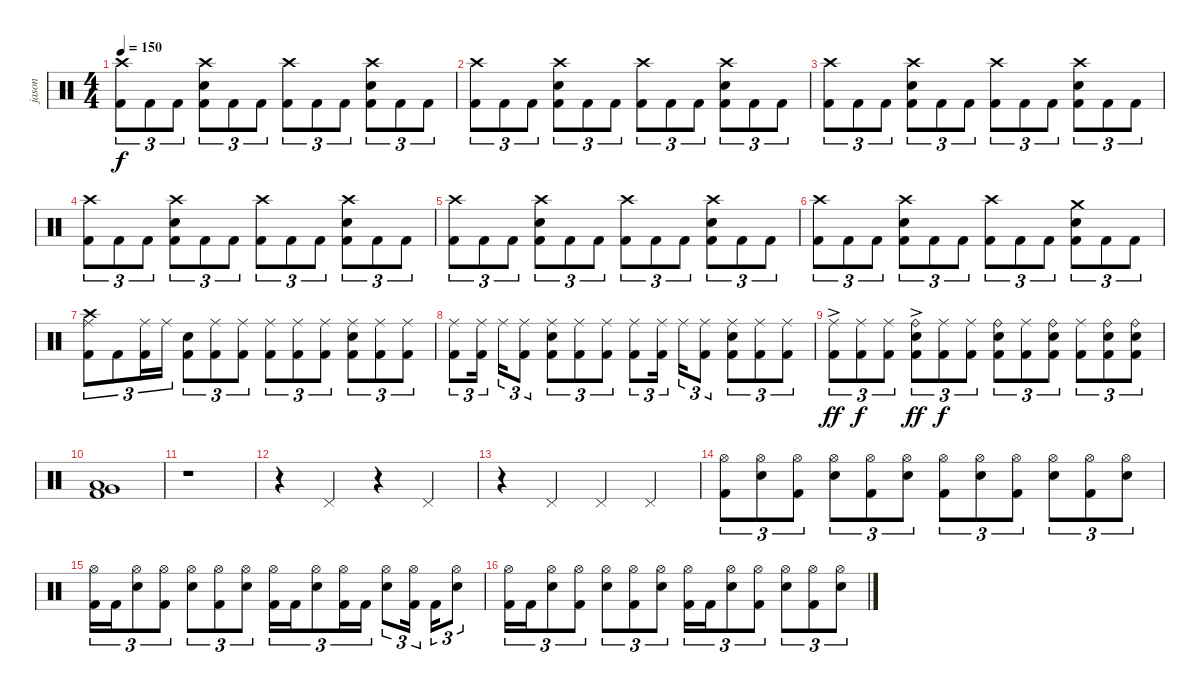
\track ("jason" "jason") {instrument percussion}
\staff {score}
\articulation defaults
\ts (4 4)
\tempo 150
\clef neutral
\ks c
("Crash high (hit)" "Kick (hit) 2").8{tu (3 2) dy f} "Kick (hit) 2".8{tu (3 2)} "Kick (hit) 2".8{tu (3 2)} ("Crash high (hit)" "Snare (hit) 2" "Kick (hit) 2").8{tu (3 2)} "Kick (hit) 2".8{tu (3 2)} "Kick (hit) 2".8{tu (3 2)} ("Crash high (hit)" "Kick (hit) 2").8{tu (3 2)} "Kick (hit) 2".8{tu (3 2)} "Kick (hit) 2".8{tu (3 2)} ("Crash high (hit)" "Snare (hit) 2" "Kick (hit) 2").8{tu (3 2)} "Kick (hit) 2".8{tu (3 2)} "Kick (hit) 2".8{tu (3 2)} |
("Crash high (hit)" "Kick (hit) 2").8{tu (3 2)} "Kick (hit) 2".8{tu (3 2)} "Kick (hit) 2".8{tu (3 2)} ("Crash high (hit)" "Snare (hit) 2" "Kick (hit) 2").8{tu (3 2)} "Kick (hit) 2".8{tu (3 2)} "Kick (hit) 2".8{tu (3 2)} ("Crash high (hit)" "Kick (hit) 2").8{tu (3 2)} "Kick (hit) 2".8{tu (3 2)} "Kick (hit) 2".8{tu (3 2)} ("Crash high (hit)" "Snare (hit) 2" "Kick (hit) 2").8{tu (3 2)} "Kick (hit) 2".8{tu (3 2)} "Kick (hit) 2".8{tu (3 2)} |
("Crash high (hit)" "Kick (hit) 2").8{tu (3 2)} "Kick (hit) 2".8{tu (3 2)} "Kick (hit) 2".8{tu (3 2)} ("Crash high (hit)" "Snare (hit) 2" "Kick (hit) 2").8{tu (3 2)} "Kick (hit) 2".8{tu (3 2)} "Kick (hit) 2".8{tu (3 2)} ("Crash high (hit)" "Kick (hit) 2").8{tu (3 2)} "Kick (hit) 2".8{tu (3 2)} "Kick (hit) 2".8{tu (3 2)} ("Crash high (hit)" "Snare (hit) 2" "Kick (hit) 2").8{tu (3 2)} "Kick (hit) 2".8{tu (3 2)} "Kick (hit) 2".8{tu (3 2)} |
("Crash high (hit)" "Kick (hit) 2").8{tu (3 2)} "Kick (hit) 2".8{tu (3 2)} "Kick (hit) 2".8{tu (3 2)} ("Crash high (hit)" "Snare (hit) 2" "Kick (hit) 2").8{tu (3 2)} "Kick (hit) 2".8{tu (3 2)} "Kick (hit) 2".8{tu (3 2)} ("Crash high (hit)" "Kick (hit) 2").8{tu (3 2)} "Kick (hit) 2".8{tu (3 2)} "Kick (hit) 2".8{tu (3 2)} ("Crash high (hit)" "Snare (hit) 2" "Kick (hit) 2").8{tu (3 2)} "Kick (hit) 2".8{tu (3 2)} "Kick (hit) 2".8{tu (3 2)} |
("Crash high (hit)" "Kick (hit) 2").8{tu (3 2)} "Kick (hit) 2".8{tu (3 2)} "Kick (hit) 2".8{tu (3 2)} ("Crash high (hit)" "Snare (hit) 2" "Kick (hit) 2").8{tu (3 2)} "Kick (hit) 2".8{tu (3 2)} "Kick (hit) 2".8{tu (3 2)} ("Crash high (hit)" "Kick (hit) 2").8{tu (3 2)} "Kick (hit) 2".8{tu (3 2)} "Kick (hit) 2".8{tu (3 2)} ("Crash high (hit)" "Snare (hit) 2" "Kick (hit) 2").8{tu (3 2)} "Kick (hit) 2".8{tu (3 2)} "Kick (hit) 2".8{tu (3 2)} |
("Crash high (hit)" "Kick (hit) 2").8{tu (3 2)} "Kick (hit) 2".8{tu (3 2)} "Kick (hit) 2".8{tu (3 2)} ("Crash high (hit)" "Snare (hit) 2" "Kick (hit) 2").8{tu (3 2)} "Kick (hit) 2".8{tu (3 2)} "Kick (hit) 2".8{tu (3 2)} ("Crash high (hit)" "Kick (hit) 2").8{tu (3 2)} "Kick (hit) 2".8{tu (3 2)} "Kick (hit) 2".8{tu (3 2)} ("Crash medium (hit)" "Snare (hit) 2" "Kick (hit) 2").8{tu (3 2)} "Kick (hit) 2".8{tu (3 2)} "Kick (hit) 2".8{tu (3 2)} |
("Crash high (hit)" "Ride (middle)" "Kick (hit) 2").8{tu (3 2)} "Kick (hit) 2".8{tu (3 2)} ("Ride (middle)" "Kick (hit) 2").16{tu (3 2)} "Ride (middle)".16{tu (3 2)} ("Snare (hit) 2" "Kick (hit) 2").8{tu (3 2)} ("Ride (middle)" "Kick (hit) 2").8{tu (3 2)} ("Ride (middle)" "Kick (hit) 2").8{tu (3 2)} ("Ride (middle)" "Kick (hit) 2").8{tu (3 2)} ("Ride (middle)" "Kick (hit) 2").8{tu (3 2)} ("Ride (middle)" "Kick (hit) 2").8{tu (3 2)} ("Ride (middle)" "Snare (hit) 2" "Kick (hit) 2").8{tu (3 2)} ("Ride (middle)" "Kick (hit) 2").8{tu (3 2)} ("Ride (middle)" "Kick (hit) 2").8{tu (3 2)} |
("Ride (middle)" "Kick (hit) 2").8{tu (3 2)} ("Ride (middle)" "Kick (hit) 2").16{tu (3 2) beam splitsecondary} "Ride (middle)".16{tu (3 2)} ("Ride (middle)" "Kick (hit) 2").8{tu (3 2)} ("Ride (middle)" "Snare (hit) 2" "Kick (hit) 2").8{tu (3 2)} ("Ride (middle)" "Kick (hit) 2").8{tu (3 2)} ("Ride (middle)" "Kick (hit) 2").8{tu (3 2)} ("Ride (middle)" "Kick (hit) 2").8{tu (3 2)} ("Ride (middle)" "Kick (hit) 2").16{tu (3 2) beam splitsecondary} "Ride (middle)".16{tu (3 2)} ("Ride (middle)" "Kick (hit) 2").8{tu (3 2)} ("Ride (middle)" "Snare (hit) 2" "Kick (hit) 2").8{tu (3 2)} ("Ride (middle)" "Kick (hit) 2").8{tu (3 2)} ("Ride (middle)" "Kick (hit) 2").8{tu (3 2)} |
("Ride (middle)"{ac} "Kick (hit) 2").8{tu (3 2) dy ff} ("Ride (middle)" "Kick (hit) 2").8{tu (3 2) dy f} ("Ride (middle)" "Kick (hit) 2").8{tu (3 2)} ("Ride (bell)"{ac} "Snare (hit) 2" "Kick (hit) 2").8{tu (3 2) dy ff} ("Ride (middle)" "Kick (hit) 2").8{tu (3 2) dy f} ("Ride (middle)" "Kick (hit) 2").8{tu (3 2)} ("Ride (bell)" "Snare (hit) 2" "Kick (hit) 2").8{tu (3 2)} ("Ride (middle)" "Kick (hit) 2").8{tu (3 2)} ("Ride (bell)" "Snare (hit) 2" "Kick (hit) 2").8{tu (3 2)} ("Ride (middle)" "Kick (hit) 2").8{tu (3 2)} ("Ride (bell)" "Snare (hit) 2" "Kick (hit) 2").8{tu (3 2)} ("Ride (bell)" "Snare (hit) 2" "Kick (hit) 2").8{tu (3 2)} |
("Very Low Tom (hit)" "Low Floor Tom (hit)" "Kick (hit) 2").1 |
r.1 |
r.4 "Pedal Hi-Hat (hit)".4 r.4 "Pedal Hi-Hat (hit)".4 |
r.4 "Pedal Hi-Hat (hit)".4 "Pedal Hi-Hat (hit)".4 "Pedal Hi-Hat (hit)".4 |
("Hi-Hat (open)" "Kick (hit) 2").8{tu (3 2)} ("Hi-Hat (open)" "Snare (hit) 2").8{tu (3 2)} ("Hi-Hat (open)" "Kick (hit) 2").8{tu (3 2)} ("Hi-Hat (open)" "Snare (hit) 2").8{tu (3 2)} ("Hi-Hat (open)" "Kick (hit) 2").8{tu (3 2)} ("Hi-Hat (open)" "Snare (hit) 2").8{tu (3 2)} ("Hi-Hat (open)" "Kick (hit) 2").8{tu (3 2)} ("Hi-Hat (open)" "Snare (hit) 2").8{tu (3 2)} ("Hi-Hat (open)" "Kick (hit) 2").8{tu (3 2)} ("Hi-Hat (open)" "Snare (hit) 2").8{tu (3 2)} ("Hi-Hat (open)" "Kick (hit) 2").8{tu (3 2)} ("Hi-Hat (open)" "Snare (hit) 2").8{tu (3 2)} |
("Hi-Hat (open)" "Kick (hit) 2").16{tu (3 2)} "Kick (hit) 2".16{tu (3 2)} ("Hi-Hat (open)" "Snare (hit) 2").8{tu (3 2)} ("Hi-Hat (open)" "Kick (hit) 2").8{tu (3 2)} ("Hi-Hat (open)" "Snare (hit) 2").8{tu (3 2)} ("Hi-Hat (open)" "Kick (hit) 2").8{tu (3 2)} ("Hi-Hat (open)" "Snare (hit) 2").8{tu (3 2)} ("Hi-Hat (open)" "Kick (hit) 2").16{tu (3 2)} "Kick (hit) 2".16{tu (3 2)} ("Hi-Hat (open)" "Snare (hit) 2").8{tu (3 2)} ("Hi-Hat (open)" "Kick (hit) 2").16{tu (3 2)} "Kick (hit) 2".16{tu (3 2)} ("Hi-Hat (open)" "Snare (hit) 2").8{tu (3 2)} ("Hi-Hat (open)" "Kick (hit) 2").16{tu (3 2) beam splitsecondary} "Kick (hit) 2".16{tu (3 2)} ("Hi-Hat (open)" "Snare (hit) 2").8{tu (3 2)} |
("Hi-Hat (open)" "Kick (hit) 2").16{tu (3 2)} "Kick (hit) 2".16{tu (3 2)} ("Hi-Hat (open)" "Snare (hit) 2").8{tu (3 2)} ("Hi-Hat (open)" "Kick (hit) 2").8{tu (3 2)} ("Hi-Hat (open)" "Snare (hit) 2").8{tu (3 2)} ("Hi-Hat (open)" "Kick (hit) 2").8{tu (3 2)} ("Hi-Hat (open)" "Snare (hit) 2").8{tu (3 2)} ("Hi-Hat (open)" "Kick (hit) 2").16{tu (3 2)} "Kick (hit) 2".16{tu (3 2)} ("Hi-Hat (open)" "Snare (hit) 2").8{tu (3 2)} ("Hi-Hat (open)" "Kick (hit) 2").8{tu (3 2)} ("Hi-Hat (open)" "Snare (hit) 2").8{tu (3 2)} ("Hi-Hat (open)" "Kick (hit) 2").8{tu (3 2)} ("Hi-Hat (open)" "Snare (hit) 2").8{tu (3 2)}
